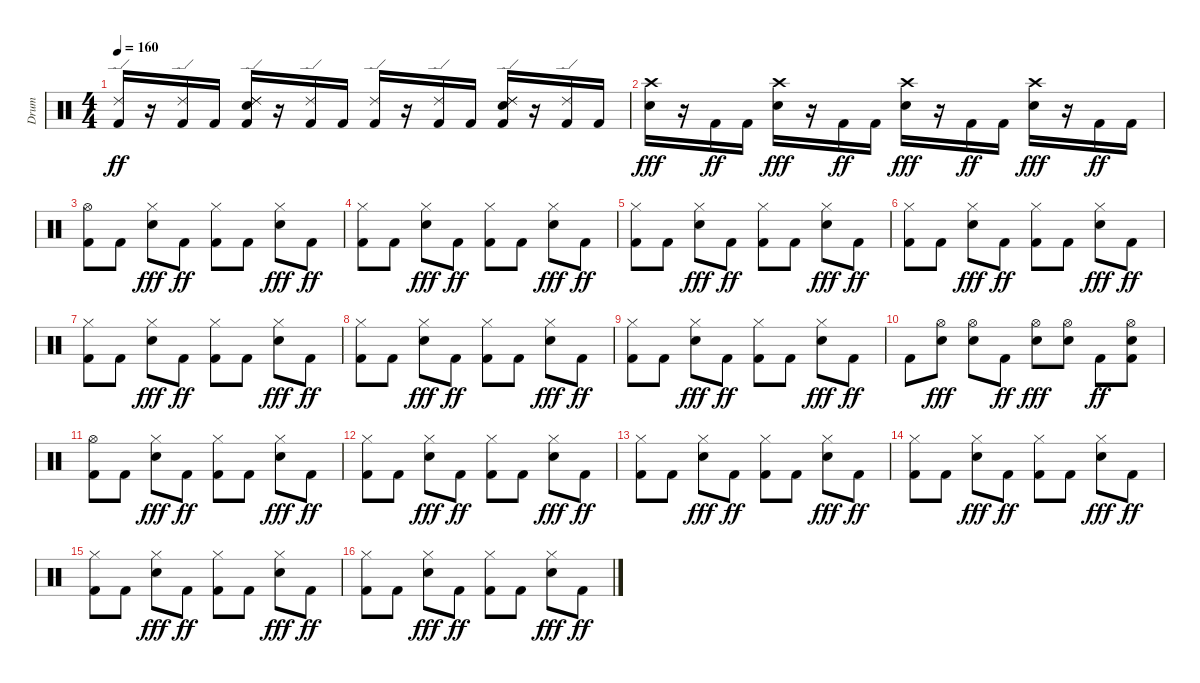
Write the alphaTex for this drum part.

\track ("Drum" "Drum") {instrument percussion}
\staff {score}
\articulation defaults
\ts (4 4)
\tempo 160
\clef neutral
\ks c
("Ride (edge) 2" "Kick (hit) 2").16{dy ff} r.16 ("Ride (edge) 2" "Kick (hit) 2").16 "Kick (hit) 2".16 ("Ride (edge) 2" "Snare (hit) 2" "Kick (hit) 2" "Ride (edge) 2").16 r.16 ("Ride (edge) 2" "Kick (hit) 2").16 "Kick (hit) 2".16 ("Ride (edge) 2" "Kick (hit) 2").16 r.16 ("Ride (edge) 2" "Kick (hit) 2").16 "Kick (hit) 2".16 ("Ride (edge) 2" "Snare (hit) 2" "Kick (hit) 2" "Ride (edge) 2").16 r.16 ("Ride (edge) 2" "Kick (hit) 2").16 "Kick (hit) 2".16 |
("Crash high (hit)" "Snare (hit) 2").16{dy fff} r.16 "Kick (hit) 2".16{dy ff} "Kick (hit) 2".16 ("Crash high (hit)" "Snare (hit) 2").16{dy fff} r.16 "Kick (hit) 2".16{dy ff} "Kick (hit) 2".16 ("Crash high (hit)" "Snare (hit) 2").16{dy fff} r.16 "Kick (hit) 2".16{dy ff} "Kick (hit) 2".16 ("Crash high (hit)" "Snare (hit) 2").16{dy fff} r.16 "Kick (hit) 2".16{dy ff} "Kick (hit) 2".16 |
("Hi-Hat (open)" "Kick (hit) 2").8 "Kick (hit) 2".8 ("Hi-Hat (closed)" "Snare (hit) 2").8{dy fff} "Kick (hit) 2".8{dy ff} ("Hi-Hat (closed)" "Kick (hit) 2").8 "Kick (hit) 2".8 ("Hi-Hat (closed)" "Snare (hit) 2").8{dy fff} "Kick (hit) 2".8{dy ff} |
("Hi-Hat (closed)" "Kick (hit) 2").8 "Kick (hit) 2".8 ("Hi-Hat (closed)" "Snare (hit) 2").8{dy fff} "Kick (hit) 2".8{dy ff} ("Hi-Hat (closed)" "Kick (hit) 2").8 "Kick (hit) 2".8 ("Hi-Hat (closed)" "Snare (hit) 2").8{dy fff} "Kick (hit) 2".8{dy ff} |
("Hi-Hat (closed)" "Kick (hit) 2").8 "Kick (hit) 2".8 ("Hi-Hat (closed)" "Snare (hit) 2").8{dy fff} "Kick (hit) 2".8{dy ff} ("Hi-Hat (closed)" "Kick (hit) 2").8 "Kick (hit) 2".8 ("Hi-Hat (closed)" "Snare (hit) 2").8{dy fff} "Kick (hit) 2".8{dy ff} |
("Hi-Hat (closed)" "Kick (hit) 2").8 "Kick (hit) 2".8 ("Hi-Hat (closed)" "Snare (hit) 2").8{dy fff} "Kick (hit) 2".8{dy ff} ("Hi-Hat (closed)" "Kick (hit) 2").8 "Kick (hit) 2".8 ("Hi-Hat (closed)" "Snare (hit) 2").8{dy fff} "Kick (hit) 2".8{dy ff} |
("Hi-Hat (closed)" "Kick (hit) 2").8 "Kick (hit) 2".8 ("Hi-Hat (closed)" "Snare (hit) 2").8{dy fff} "Kick (hit) 2".8{dy ff} ("Hi-Hat (closed)" "Kick (hit) 2").8 "Kick (hit) 2".8 ("Hi-Hat (closed)" "Snare (hit) 2").8{dy fff} "Kick (hit) 2".8{dy ff} |
("Hi-Hat (closed)" "Kick (hit) 2").8 "Kick (hit) 2".8 ("Hi-Hat (closed)" "Snare (hit) 2").8{dy fff} "Kick (hit) 2".8{dy ff} ("Hi-Hat (closed)" "Kick (hit) 2").8 "Kick (hit) 2".8 ("Hi-Hat (closed)" "Snare (hit) 2").8{dy fff} "Kick (hit) 2".8{dy ff} |
("Hi-Hat (closed)" "Kick (hit) 2").8 "Kick (hit) 2".8 ("Hi-Hat (closed)" "Snare (hit) 2").8{dy fff} "Kick (hit) 2".8{dy ff} ("Hi-Hat (closed)" "Kick (hit) 2").8 "Kick (hit) 2".8 ("Hi-Hat (closed)" "Snare (hit) 2").8{dy fff} "Kick (hit) 2".8{dy ff} |
"Kick (hit) 2".8 ("Hi-Hat (open)" "Snare (hit) 2").8{dy fff} ("Hi-Hat (open)" "Snare (hit) 2").8 "Kick (hit) 2".8{dy ff} ("Hi-Hat (open)" "Snare (hit) 2").8{dy fff} ("Hi-Hat (open)" "Snare (hit) 2").8 "Kick (hit) 2".8{dy ff} ("Hi-Hat (open)" "Snare (hit) 2" "Kick (hit) 2").8 |
("Hi-Hat (open)" "Kick (hit) 2").8 "Kick (hit) 2".8 ("Hi-Hat (closed)" "Snare (hit) 2").8{dy fff} "Kick (hit) 2".8{dy ff} ("Hi-Hat (closed)" "Kick (hit) 2").8 "Kick (hit) 2".8 ("Hi-Hat (closed)" "Snare (hit) 2").8{dy fff} "Kick (hit) 2".8{dy ff} |
("Hi-Hat (closed)" "Kick (hit) 2").8 "Kick (hit) 2".8 ("Hi-Hat (closed)" "Snare (hit) 2").8{dy fff} "Kick (hit) 2".8{dy ff} ("Hi-Hat (closed)" "Kick (hit) 2").8 "Kick (hit) 2".8 ("Hi-Hat (closed)" "Snare (hit) 2").8{dy fff} "Kick (hit) 2".8{dy ff} |
("Hi-Hat (closed)" "Kick (hit) 2").8 "Kick (hit) 2".8 ("Hi-Hat (closed)" "Snare (hit) 2").8{dy fff} "Kick (hit) 2".8{dy ff} ("Hi-Hat (closed)" "Kick (hit) 2").8 "Kick (hit) 2".8 ("Hi-Hat (closed)" "Snare (hit) 2").8{dy fff} "Kick (hit) 2".8{dy ff} |
("Hi-Hat (closed)" "Kick (hit) 2").8 "Kick (hit) 2".8 ("Hi-Hat (closed)" "Snare (hit) 2").8{dy fff} "Kick (hit) 2".8{dy ff} ("Hi-Hat (closed)" "Kick (hit) 2").8 "Kick (hit) 2".8 ("Hi-Hat (closed)" "Snare (hit) 2").8{dy fff} "Kick (hit) 2".8{dy ff} |
("Hi-Hat (closed)" "Kick (hit) 2").8 "Kick (hit) 2".8 ("Hi-Hat (closed)" "Snare (hit) 2").8{dy fff} "Kick (hit) 2".8{dy ff} ("Hi-Hat (closed)" "Kick (hit) 2").8 "Kick (hit) 2".8 ("Hi-Hat (closed)" "Snare (hit) 2").8{dy fff} "Kick (hit) 2".8{dy ff} |
("Hi-Hat (closed)" "Kick (hit) 2").8 "Kick (hit) 2".8 ("Hi-Hat (closed)" "Snare (hit) 2").8{dy fff} "Kick (hit) 2".8{dy ff} ("Hi-Hat (closed)" "Kick (hit) 2").8 "Kick (hit) 2".8 ("Hi-Hat (closed)" "Snare (hit) 2").8{dy fff} "Kick (hit) 2".8{dy ff}
